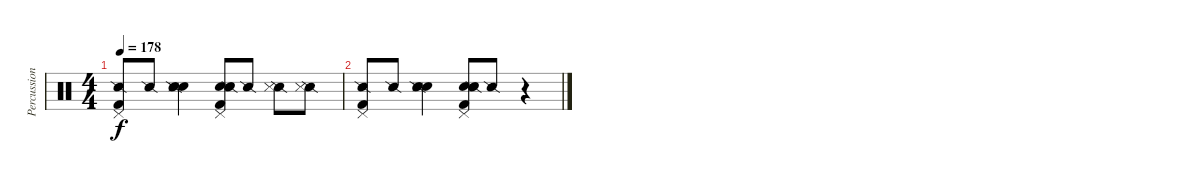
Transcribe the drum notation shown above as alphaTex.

\track ("Percussion" "Percussion") {instrument percussion}
\staff {score}
\articulation defaults
\ts (4 4)
\tempo 178
\clef neutral
\ks c
("Pedal Hi-Hat (hit)" "Kick (hit) 2" "Snare (side stick) 2").8{dy f} "Snare (side stick) 2".8 ("Hand Clap (hit)" "Hand Clap (hit)" "Snare (side stick) 2" "Metronome (hit)").4 ("Pedal Hi-Hat (hit)" "Hand Clap (hit)" "Hand Clap (hit)" "Kick (hit) 2" "Snare (side stick) 2").8 "Snare (side stick) 2".8 ("Snare (side stick) 2" "Metronome (hit)").8 ("Snare (side stick) 2" "Metronome (hit)").8 |
("Pedal Hi-Hat (hit)" "Kick (hit) 2" "Snare (side stick) 2").8 "Snare (side stick) 2".8 ("Hand Clap (hit)" "Hand Clap (hit)" "Snare (side stick) 2" "Metronome (hit)").4 ("Pedal Hi-Hat (hit)" "Hand Clap (hit)" "Hand Clap (hit)" "Kick (hit) 2" "Snare (side stick) 2").8 "Snare (side stick) 2".8 r.4
